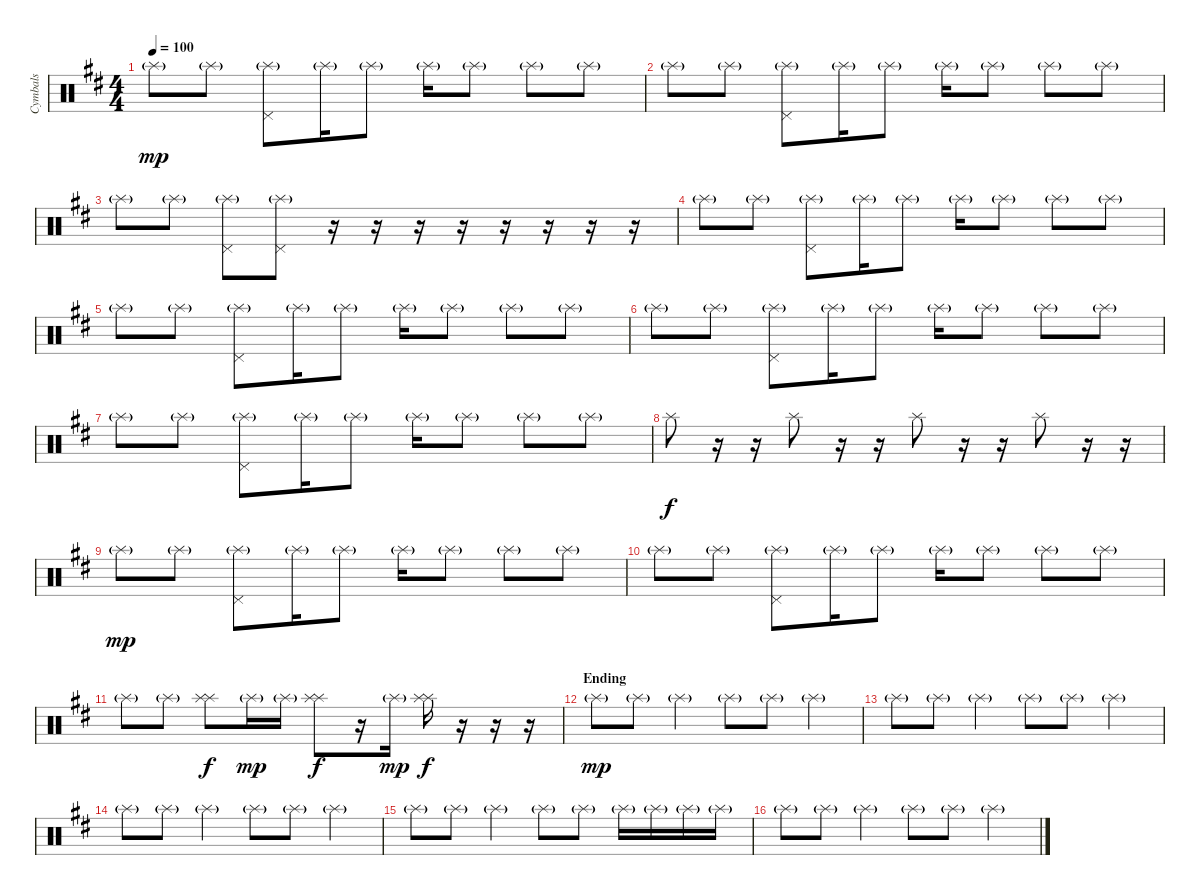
\track ("Cymbals" "Cymbals") {instrument percussion}
\staff {score}
\articulation defaults
\ts (4 4)
\tempo 100
\clef neutral
\ks d "Splash (hit)"{g}.8{dy mp} "Splash (hit)"{g}.8
("Splash (hit)"{g} "Pedal Hi-Hat (hit)").8 "Splash (hit)"{g}.16 "Splash (hit)"{g}.8 "Splash (hit)"{g}.16 "Splash (hit)"{g}.8 "Splash (hit)"{g}.8 "Splash (hit)"{g}.8 |
"Splash (hit)"{g}.8 "Splash (hit)"{g}.8 ("Splash (hit)"{g} "Pedal Hi-Hat (hit)").8 "Splash (hit)"{g}.16 "Splash (hit)"{g}.8 "Splash (hit)"{g}.16 "Splash (hit)"{g}.8 "Splash (hit)"{g}.8 "Splash (hit)"{g}.8 |
"Splash (hit)"{g}.8 "Splash (hit)"{g}.8 ("Splash (hit)"{g} "Pedal Hi-Hat (hit)").8 ("Splash (hit)"{g} "Pedal Hi-Hat (hit)").8 r.16 r.16 r.16 r.16 r.16 r.16 r.16 r.16 |
"Splash (hit)"{g}.8 "Splash (hit)"{g}.8 ("Splash (hit)"{g} "Pedal Hi-Hat (hit)").8 "Splash (hit)"{g}.16 "Splash (hit)"{g}.8 "Splash (hit)"{g}.16 "Splash (hit)"{g}.8 "Splash (hit)"{g}.8 "Splash (hit)"{g}.8 |
"Splash (hit)"{g}.8 "Splash (hit)"{g}.8 ("Splash (hit)"{g} "Pedal Hi-Hat (hit)").8 "Splash (hit)"{g}.16 "Splash (hit)"{g}.8 "Splash (hit)"{g}.16 "Splash (hit)"{g}.8 "Splash (hit)"{g}.8 "Splash (hit)"{g}.8 |
"Splash (hit)"{g}.8 "Splash (hit)"{g}.8 ("Splash (hit)"{g} "Pedal Hi-Hat (hit)").8 "Splash (hit)"{g}.16 "Splash (hit)"{g}.8 "Splash (hit)"{g}.16 "Splash (hit)"{g}.8 "Splash (hit)"{g}.8 "Splash (hit)"{g}.8 |
"Splash (hit)"{g}.8 "Splash (hit)"{g}.8 ("Splash (hit)"{g} "Pedal Hi-Hat (hit)").8 "Splash (hit)"{g}.16 "Splash (hit)"{g}.8 "Splash (hit)"{g}.16 "Splash (hit)"{g}.8 "Splash (hit)"{g}.8 "Splash (hit)"{g}.8 |
"Splash (hit)".8{dy f} r.16 r.16 "Splash (hit)".8 r.16 r.16 "Splash (hit)".8 r.16 r.16 "Splash (hit)".8 r.16 r.16 |
"Splash (hit)"{g}.8{dy mp} "Splash (hit)"{g}.8 ("Splash (hit)"{g} "Pedal Hi-Hat (hit)").8 "Splash (hit)"{g}.16 "Splash (hit)"{g}.8 "Splash (hit)"{g}.16 "Splash (hit)"{g}.8 "Splash (hit)"{g}.8 "Splash (hit)"{g}.8 |
"Splash (hit)"{g}.8 "Splash (hit)"{g}.8 ("Splash (hit)"{g} "Pedal Hi-Hat (hit)").8 "Splash (hit)"{g}.16 "Splash (hit)"{g}.8 "Splash (hit)"{g}.16 "Splash (hit)"{g}.8 "Splash (hit)"{g}.8 "Splash (hit)"{g}.8 |
"Splash (hit)"{g}.8 "Splash (hit)"{g}.8 ("Splash (hit)" "Splash (hit)").8{dy f} "Splash (hit)"{g}.16{dy mp} "Splash (hit)"{g}.16 ("Splash (hit)" "Splash (hit)").8{dy f} r.16 "Splash (hit)"{g}.16{dy mp} ("Splash (hit)" "Splash (hit)").16{dy f} r.16 r.16 r.16 |
\section ("" "Ending")
"Splash (hit)"{g}.8{dy mp} "Splash (hit)"{g}.8 "Splash (hit)"{g}.4 "Splash (hit)"{g}.8 "Splash (hit)"{g}.8 "Splash (hit)"{g}.4 |
"Splash (hit)"{g}.8 "Splash (hit)"{g}.8 "Splash (hit)"{g}.4 "Splash (hit)"{g}.8 "Splash (hit)"{g}.8 "Splash (hit)"{g}.4 |
"Splash (hit)"{g}.8 "Splash (hit)"{g}.8 "Splash (hit)"{g}.4 "Splash (hit)"{g}.8 "Splash (hit)"{g}.8 "Splash (hit)"{g}.4 |
"Splash (hit)"{g}.8 "Splash (hit)"{g}.8 "Splash (hit)"{g}.4 "Splash (hit)"{g}.8 "Splash (hit)"{g}.8 "Splash (hit)"{g}.16 "Splash (hit)"{g}.16 "Splash (hit)"{g}.16 "Splash (hit)"{g}.16 |
"Splash (hit)"{g}.8 "Splash (hit)"{g}.8 "Splash (hit)"{g}.4 "Splash (hit)"{g}.8 "Splash (hit)"{g}.8 "Splash (hit)"{g}.4
